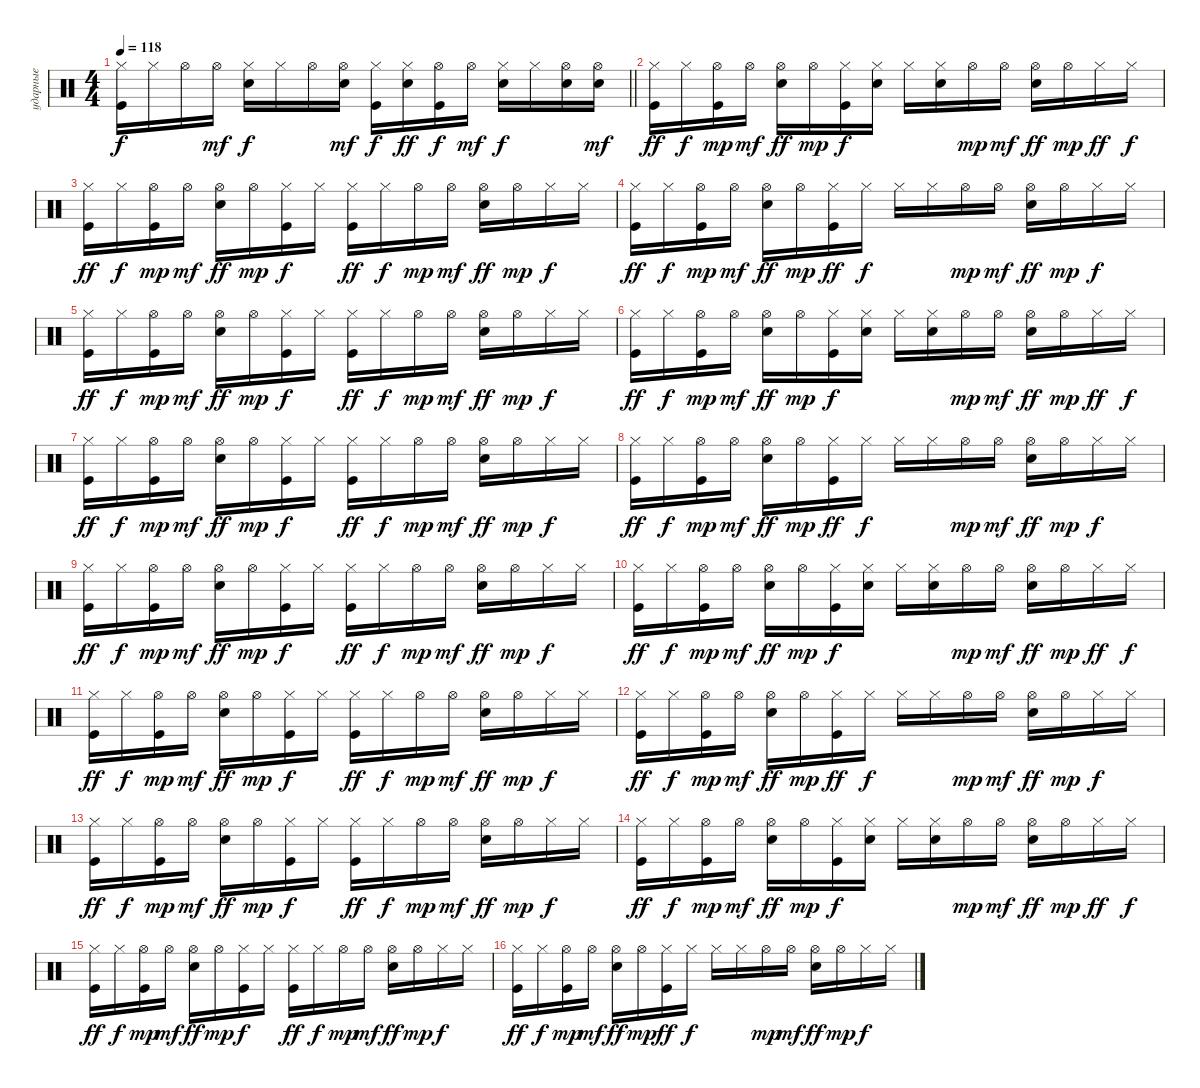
\track ("ударные" "ударные") {instrument percussion}
\staff {score}
\articulation defaults
\ts (4 4)
\tempo 118
\clef neutral
\barLineRight lightlight
\ks c
("Hi-Hat (closed)" "Kick (hit)").16{dy f} "Hi-Hat (closed)".16 "Hi-Hat (open)".16 "Hi-Hat (open)".16{dy mf} ("Hi-Hat (closed)" "Electric Snare (hit)").16{dy f} "Hi-Hat (closed)".16 "Hi-Hat (open)".16 ("Electric Snare (hit)" "Hi-Hat (open)").16{dy mf} ("Hi-Hat (closed)" "Kick (hit)").16{dy f} ("Electric Snare (hit)" "Hi-Hat (closed)").16{dy ff} ("Hi-Hat (open)" "Kick (hit)").16{dy f} "Hi-Hat (open)".16{dy mf} ("Electric Snare (hit)" "Hi-Hat (closed)").16{dy f} "Hi-Hat (closed)".16 ("Hi-Hat (open)" "Electric Snare (hit)").16 ("Hi-Hat (open)" "Electric Snare (hit)").16{dy mf} |
("Kick (hit)" "Hi-Hat (closed)").16{dy ff} "Hi-Hat (closed)".16{dy f} ("Kick (hit)" "Hi-Hat (open)").16{dy mp} "Hi-Hat (open)".16{dy mf} ("Electric Snare (hit)" "Hi-Hat (open)").16{dy ff} "Hi-Hat (open)".16{dy mp} ("Kick (hit)" "Hi-Hat (closed)").16{dy f} ("Electric Snare (hit)" "Hi-Hat (closed)").16 "Hi-Hat (closed)".16 ("Electric Snare (hit)" "Hi-Hat (closed)").16 "Hi-Hat (open)".16{dy mp} "Hi-Hat (open)".16{dy mf} ("Hi-Hat (open)" "Electric Snare (hit)").16{dy ff} "Hi-Hat (open)".16{dy mp} "Hi-Hat (closed)".16{dy ff} "Hi-Hat (closed)".16{dy f} |
("Kick (hit)" "Hi-Hat (closed)").16{dy ff} "Hi-Hat (closed)".16{dy f} ("Kick (hit)" "Hi-Hat (open)").16{dy mp} "Hi-Hat (open)".16{dy mf} ("Electric Snare (hit)" "Hi-Hat (open)").16{dy ff} "Hi-Hat (open)".16{dy mp} ("Kick (hit)" "Hi-Hat (closed)").16{dy f} "Hi-Hat (closed)".16 ("Kick (hit)" "Hi-Hat (closed)").16{dy ff} "Hi-Hat (closed)".16{dy f} "Hi-Hat (open)".16{dy mp} "Hi-Hat (open)".16{dy mf} ("Electric Snare (hit)" "Hi-Hat (open)").16{dy ff} "Hi-Hat (open)".16{dy mp} "Hi-Hat (closed)".16{dy f} "Hi-Hat (closed)".16 |
("Kick (hit)" "Hi-Hat (closed)").16{dy ff} "Hi-Hat (closed)".16{dy f} ("Kick (hit)" "Hi-Hat (open)").16{dy mp} "Hi-Hat (open)".16{dy mf} ("Electric Snare (hit)" "Hi-Hat (open)").16{dy ff} "Hi-Hat (open)".16{dy mp} ("Kick (hit)" "Hi-Hat (closed)").16{dy ff} "Hi-Hat (closed)".16{dy f} "Hi-Hat (closed)".16 "Hi-Hat (closed)".16 "Hi-Hat (open)".16{dy mp} "Hi-Hat (open)".16{dy mf} ("Electric Snare (hit)" "Hi-Hat (open)").16{dy ff} "Hi-Hat (open)".16{dy mp} "Hi-Hat (closed)".16{dy f} "Hi-Hat (closed)".16 |
("Kick (hit)" "Hi-Hat (closed)").16{dy ff} "Hi-Hat (closed)".16{dy f} ("Kick (hit)" "Hi-Hat (open)").16{dy mp} "Hi-Hat (open)".16{dy mf} ("Electric Snare (hit)" "Hi-Hat (open)").16{dy ff} "Hi-Hat (open)".16{dy mp} ("Kick (hit)" "Hi-Hat (closed)").16{dy f} "Hi-Hat (closed)".16 ("Kick (hit)" "Hi-Hat (closed)").16{dy ff} "Hi-Hat (closed)".16{dy f} "Hi-Hat (open)".16{dy mp} "Hi-Hat (open)".16{dy mf} ("Electric Snare (hit)" "Hi-Hat (open)").16{dy ff} "Hi-Hat (open)".16{dy mp} "Hi-Hat (closed)".16{dy f} "Hi-Hat (closed)".16 |
("Kick (hit)" "Hi-Hat (closed)").16{dy ff} "Hi-Hat (closed)".16{dy f} ("Kick (hit)" "Hi-Hat (open)").16{dy mp} "Hi-Hat (open)".16{dy mf} ("Electric Snare (hit)" "Hi-Hat (open)").16{dy ff} "Hi-Hat (open)".16{dy mp} ("Kick (hit)" "Hi-Hat (closed)").16{dy f} ("Electric Snare (hit)" "Hi-Hat (closed)").16 "Hi-Hat (closed)".16 ("Electric Snare (hit)" "Hi-Hat (closed)").16 "Hi-Hat (open)".16{dy mp} "Hi-Hat (open)".16{dy mf} ("Hi-Hat (open)" "Electric Snare (hit)").16{dy ff} "Hi-Hat (open)".16{dy mp} "Hi-Hat (closed)".16{dy ff} "Hi-Hat (closed)".16{dy f} |
("Kick (hit)" "Hi-Hat (closed)").16{dy ff} "Hi-Hat (closed)".16{dy f} ("Kick (hit)" "Hi-Hat (open)").16{dy mp} "Hi-Hat (open)".16{dy mf} ("Electric Snare (hit)" "Hi-Hat (open)").16{dy ff} "Hi-Hat (open)".16{dy mp} ("Kick (hit)" "Hi-Hat (closed)").16{dy f} "Hi-Hat (closed)".16 ("Kick (hit)" "Hi-Hat (closed)").16{dy ff} "Hi-Hat (closed)".16{dy f} "Hi-Hat (open)".16{dy mp} "Hi-Hat (open)".16{dy mf} ("Electric Snare (hit)" "Hi-Hat (open)").16{dy ff} "Hi-Hat (open)".16{dy mp} "Hi-Hat (closed)".16{dy f} "Hi-Hat (closed)".16 |
("Kick (hit)" "Hi-Hat (closed)").16{dy ff} "Hi-Hat (closed)".16{dy f} ("Kick (hit)" "Hi-Hat (open)").16{dy mp} "Hi-Hat (open)".16{dy mf} ("Electric Snare (hit)" "Hi-Hat (open)").16{dy ff} "Hi-Hat (open)".16{dy mp} ("Kick (hit)" "Hi-Hat (closed)").16{dy ff} "Hi-Hat (closed)".16{dy f} "Hi-Hat (closed)".16 "Hi-Hat (closed)".16 "Hi-Hat (open)".16{dy mp} "Hi-Hat (open)".16{dy mf} ("Electric Snare (hit)" "Hi-Hat (open)").16{dy ff} "Hi-Hat (open)".16{dy mp} "Hi-Hat (closed)".16{dy f} "Hi-Hat (closed)".16 |
("Kick (hit)" "Hi-Hat (closed)").16{dy ff} "Hi-Hat (closed)".16{dy f} ("Kick (hit)" "Hi-Hat (open)").16{dy mp} "Hi-Hat (open)".16{dy mf} ("Electric Snare (hit)" "Hi-Hat (open)").16{dy ff} "Hi-Hat (open)".16{dy mp} ("Kick (hit)" "Hi-Hat (closed)").16{dy f} "Hi-Hat (closed)".16 ("Kick (hit)" "Hi-Hat (closed)").16{dy ff} "Hi-Hat (closed)".16{dy f} "Hi-Hat (open)".16{dy mp} "Hi-Hat (open)".16{dy mf} ("Electric Snare (hit)" "Hi-Hat (open)").16{dy ff} "Hi-Hat (open)".16{dy mp} "Hi-Hat (closed)".16{dy f} "Hi-Hat (closed)".16 |
("Kick (hit)" "Hi-Hat (closed)").16{dy ff} "Hi-Hat (closed)".16{dy f} ("Kick (hit)" "Hi-Hat (open)").16{dy mp} "Hi-Hat (open)".16{dy mf} ("Electric Snare (hit)" "Hi-Hat (open)").16{dy ff} "Hi-Hat (open)".16{dy mp} ("Kick (hit)" "Hi-Hat (closed)").16{dy f} ("Electric Snare (hit)" "Hi-Hat (closed)").16 "Hi-Hat (closed)".16 ("Electric Snare (hit)" "Hi-Hat (closed)").16 "Hi-Hat (open)".16{dy mp} "Hi-Hat (open)".16{dy mf} ("Hi-Hat (open)" "Electric Snare (hit)").16{dy ff} "Hi-Hat (open)".16{dy mp} "Hi-Hat (closed)".16{dy ff} "Hi-Hat (closed)".16{dy f} |
("Kick (hit)" "Hi-Hat (closed)").16{dy ff} "Hi-Hat (closed)".16{dy f} ("Kick (hit)" "Hi-Hat (open)").16{dy mp} "Hi-Hat (open)".16{dy mf} ("Electric Snare (hit)" "Hi-Hat (open)").16{dy ff} "Hi-Hat (open)".16{dy mp} ("Kick (hit)" "Hi-Hat (closed)").16{dy f} "Hi-Hat (closed)".16 ("Kick (hit)" "Hi-Hat (closed)").16{dy ff} "Hi-Hat (closed)".16{dy f} "Hi-Hat (open)".16{dy mp} "Hi-Hat (open)".16{dy mf} ("Electric Snare (hit)" "Hi-Hat (open)").16{dy ff} "Hi-Hat (open)".16{dy mp} "Hi-Hat (closed)".16{dy f} "Hi-Hat (closed)".16 |
("Kick (hit)" "Hi-Hat (closed)").16{dy ff} "Hi-Hat (closed)".16{dy f} ("Kick (hit)" "Hi-Hat (open)").16{dy mp} "Hi-Hat (open)".16{dy mf} ("Electric Snare (hit)" "Hi-Hat (open)").16{dy ff} "Hi-Hat (open)".16{dy mp} ("Kick (hit)" "Hi-Hat (closed)").16{dy ff} "Hi-Hat (closed)".16{dy f} "Hi-Hat (closed)".16 "Hi-Hat (closed)".16 "Hi-Hat (open)".16{dy mp} "Hi-Hat (open)".16{dy mf} ("Electric Snare (hit)" "Hi-Hat (open)").16{dy ff} "Hi-Hat (open)".16{dy mp} "Hi-Hat (closed)".16{dy f} "Hi-Hat (closed)".16 |
("Kick (hit)" "Hi-Hat (closed)").16{dy ff} "Hi-Hat (closed)".16{dy f} ("Kick (hit)" "Hi-Hat (open)").16{dy mp} "Hi-Hat (open)".16{dy mf} ("Electric Snare (hit)" "Hi-Hat (open)").16{dy ff} "Hi-Hat (open)".16{dy mp} ("Kick (hit)" "Hi-Hat (closed)").16{dy f} "Hi-Hat (closed)".16 ("Kick (hit)" "Hi-Hat (closed)").16{dy ff} "Hi-Hat (closed)".16{dy f} "Hi-Hat (open)".16{dy mp} "Hi-Hat (open)".16{dy mf} ("Electric Snare (hit)" "Hi-Hat (open)").16{dy ff} "Hi-Hat (open)".16{dy mp} "Hi-Hat (closed)".16{dy f} "Hi-Hat (closed)".16 |
("Kick (hit)" "Hi-Hat (closed)").16{dy ff} "Hi-Hat (closed)".16{dy f} ("Kick (hit)" "Hi-Hat (open)").16{dy mp} "Hi-Hat (open)".16{dy mf} ("Electric Snare (hit)" "Hi-Hat (open)").16{dy ff} "Hi-Hat (open)".16{dy mp} ("Kick (hit)" "Hi-Hat (closed)").16{dy f} ("Electric Snare (hit)" "Hi-Hat (closed)").16 "Hi-Hat (closed)".16 ("Electric Snare (hit)" "Hi-Hat (closed)").16 "Hi-Hat (open)".16{dy mp} "Hi-Hat (open)".16{dy mf} ("Hi-Hat (open)" "Electric Snare (hit)").16{dy ff} "Hi-Hat (open)".16{dy mp} "Hi-Hat (closed)".16{dy ff} "Hi-Hat (closed)".16{dy f} |
("Kick (hit)" "Hi-Hat (closed)").16{dy ff} "Hi-Hat (closed)".16{dy f} ("Kick (hit)" "Hi-Hat (open)").16{dy mp} "Hi-Hat (open)".16{dy mf} ("Electric Snare (hit)" "Hi-Hat (open)").16{dy ff} "Hi-Hat (open)".16{dy mp} ("Kick (hit)" "Hi-Hat (closed)").16{dy f} "Hi-Hat (closed)".16 ("Kick (hit)" "Hi-Hat (closed)").16{dy ff} "Hi-Hat (closed)".16{dy f} "Hi-Hat (open)".16{dy mp} "Hi-Hat (open)".16{dy mf} ("Electric Snare (hit)" "Hi-Hat (open)").16{dy ff} "Hi-Hat (open)".16{dy mp} "Hi-Hat (closed)".16{dy f} "Hi-Hat (closed)".16 |
("Kick (hit)" "Hi-Hat (closed)").16{dy ff} "Hi-Hat (closed)".16{dy f} ("Kick (hit)" "Hi-Hat (open)").16{dy mp} "Hi-Hat (open)".16{dy mf} ("Electric Snare (hit)" "Hi-Hat (open)").16{dy ff} "Hi-Hat (open)".16{dy mp} ("Kick (hit)" "Hi-Hat (closed)").16{dy ff} "Hi-Hat (closed)".16{dy f} "Hi-Hat (closed)".16 "Hi-Hat (closed)".16 "Hi-Hat (open)".16{dy mp} "Hi-Hat (open)".16{dy mf} ("Electric Snare (hit)" "Hi-Hat (open)").16{dy ff} "Hi-Hat (open)".16{dy mp} "Hi-Hat (closed)".16{dy f} "Hi-Hat (closed)".16
